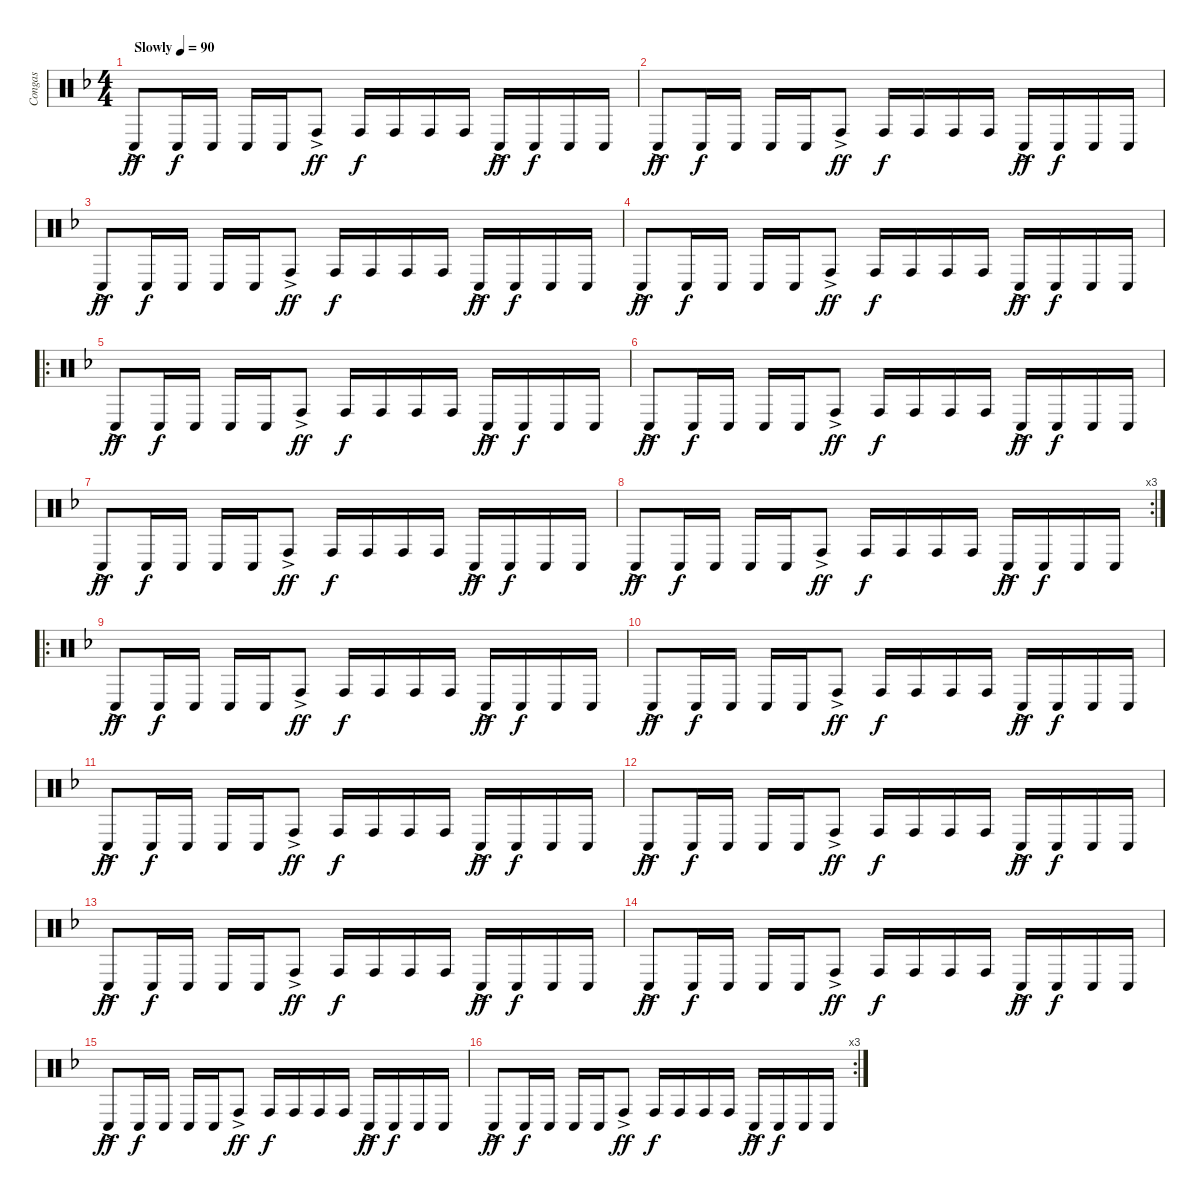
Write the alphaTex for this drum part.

\track ("Congas" "Congas") {instrument percussion}
\staff {score}
\articulation defaults
\ts (4 4)
\tempo (90 "Slowly")
\clef neutral
\ks dminor "Conga low (hit)"{ac}.8{dy ff} "Conga low (hit)".16{dy f} "Conga low (hit)".16 "Conga low (hit)".16 "Conga low (hit)".16 "Conga high (hit)"{ac}.8{dy ff} "Conga high (hit)".16{dy f} "Conga high (hit)".16 "Conga high (hit)".16 "Conga high (hit)".16 "Conga low (hit)"{ac}.16{dy ff} "Conga low (hit)".16{dy f} "Conga low (hit)".16 "Conga low (hit)".16
|
"Conga low (hit)"{ac}.8{dy ff} "Conga low (hit)".16{dy f} "Conga low (hit)".16 "Conga low (hit)".16 "Conga low (hit)".16 "Conga high (hit)"{ac}.8{dy ff} "Conga high (hit)".16{dy f} "Conga high (hit)".16 "Conga high (hit)".16 "Conga high (hit)".16 "Conga low (hit)"{ac}.16{dy ff} "Conga low (hit)".16{dy f} "Conga low (hit)".16 "Conga low (hit)".16 |
"Conga low (hit)"{ac}.8{dy ff} "Conga low (hit)".16{dy f} "Conga low (hit)".16 "Conga low (hit)".16 "Conga low (hit)".16 "Conga high (hit)"{ac}.8{dy ff} "Conga high (hit)".16{dy f} "Conga high (hit)".16 "Conga high (hit)".16 "Conga high (hit)".16 "Conga low (hit)"{ac}.16{dy ff} "Conga low (hit)".16{dy f} "Conga low (hit)".16 "Conga low (hit)".16 |
"Conga low (hit)"{ac}.8{dy ff} "Conga low (hit)".16{dy f} "Conga low (hit)".16 "Conga low (hit)".16 "Conga low (hit)".16 "Conga high (hit)"{ac}.8{dy ff} "Conga high (hit)".16{dy f} "Conga high (hit)".16 "Conga high (hit)".16 "Conga high (hit)".16 "Conga low (hit)"{ac}.16{dy ff} "Conga low (hit)".16{dy f} "Conga low (hit)".16 "Conga low (hit)".16 |
\ro "Conga low (hit)"{ac}.8{dy ff} "Conga low (hit)".16{dy f} "Conga low (hit)".16 "Conga low (hit)".16 "Conga low (hit)".16 "Conga high (hit)"{ac}.8{dy ff} "Conga high (hit)".16{dy f} "Conga high (hit)".16 "Conga high (hit)".16 "Conga high (hit)".16 "Conga low (hit)"{ac}.16{dy ff} "Conga low (hit)".16{dy f} "Conga low (hit)".16 "Conga low (hit)".16
|
"Conga low (hit)"{ac}.8{dy ff} "Conga low (hit)".16{dy f} "Conga low (hit)".16 "Conga low (hit)".16 "Conga low (hit)".16 "Conga high (hit)"{ac}.8{dy ff} "Conga high (hit)".16{dy f} "Conga high (hit)".16 "Conga high (hit)".16 "Conga high (hit)".16 "Conga low (hit)"{ac}.16{dy ff} "Conga low (hit)".16{dy f} "Conga low (hit)".16 "Conga low (hit)".16 |
"Conga low (hit)"{ac}.8{dy ff} "Conga low (hit)".16{dy f} "Conga low (hit)".16 "Conga low (hit)".16 "Conga low (hit)".16 "Conga high (hit)"{ac}.8{dy ff} "Conga high (hit)".16{dy f} "Conga high (hit)".16 "Conga high (hit)".16 "Conga high (hit)".16 "Conga low (hit)"{ac}.16{dy ff} "Conga low (hit)".16{dy f} "Conga low (hit)".16 "Conga low (hit)".16 |
\rc 3 "Conga low (hit)"{ac}.8{dy ff} "Conga low (hit)".16{dy f} "Conga low (hit)".16 "Conga low (hit)".16 "Conga low (hit)".16 "Conga high (hit)"{ac}.8{dy ff} "Conga high (hit)".16{dy f} "Conga high (hit)".16 "Conga high (hit)".16 "Conga high (hit)".16 "Conga low (hit)"{ac}.16{dy ff} "Conga low (hit)".16{dy f} "Conga low (hit)".16 "Conga low (hit)".16
|
\ro "Conga low (hit)"{ac}.8{dy ff} "Conga low (hit)".16{dy f} "Conga low (hit)".16 "Conga low (hit)".16 "Conga low (hit)".16 "Conga high (hit)"{ac}.8{dy ff} "Conga high (hit)".16{dy f} "Conga high (hit)".16 "Conga high (hit)".16 "Conga high (hit)".16 "Conga low (hit)"{ac}.16{dy ff} "Conga low (hit)".16{dy f} "Conga low (hit)".16 "Conga low (hit)".16
|
"Conga low (hit)"{ac}.8{dy ff} "Conga low (hit)".16{dy f} "Conga low (hit)".16 "Conga low (hit)".16 "Conga low (hit)".16 "Conga high (hit)"{ac}.8{dy ff} "Conga high (hit)".16{dy f} "Conga high (hit)".16 "Conga high (hit)".16 "Conga high (hit)".16 "Conga low (hit)"{ac}.16{dy ff} "Conga low (hit)".16{dy f} "Conga low (hit)".16 "Conga low (hit)".16 |
"Conga low (hit)"{ac}.8{dy ff} "Conga low (hit)".16{dy f} "Conga low (hit)".16 "Conga low (hit)".16 "Conga low (hit)".16 "Conga high (hit)"{ac}.8{dy ff} "Conga high (hit)".16{dy f} "Conga high (hit)".16 "Conga high (hit)".16 "Conga high (hit)".16 "Conga low (hit)"{ac}.16{dy ff} "Conga low (hit)".16{dy f} "Conga low (hit)".16 "Conga low (hit)".16 |
"Conga low (hit)"{ac}.8{dy ff} "Conga low (hit)".16{dy f} "Conga low (hit)".16 "Conga low (hit)".16 "Conga low (hit)".16 "Conga high (hit)"{ac}.8{dy ff} "Conga high (hit)".16{dy f} "Conga high (hit)".16 "Conga high (hit)".16 "Conga high (hit)".16 "Conga low (hit)"{ac}.16{dy ff} "Conga low (hit)".16{dy f} "Conga low (hit)".16 "Conga low (hit)".16 |
"Conga low (hit)"{ac}.8{dy ff} "Conga low (hit)".16{dy f} "Conga low (hit)".16 "Conga low (hit)".16 "Conga low (hit)".16 "Conga high (hit)"{ac}.8{dy ff} "Conga high (hit)".16{dy f} "Conga high (hit)".16 "Conga high (hit)".16 "Conga high (hit)".16 "Conga low (hit)"{ac}.16{dy ff} "Conga low (hit)".16{dy f} "Conga low (hit)".16 "Conga low (hit)".16 |
"Conga low (hit)"{ac}.8{dy ff} "Conga low (hit)".16{dy f} "Conga low (hit)".16 "Conga low (hit)".16 "Conga low (hit)".16 "Conga high (hit)"{ac}.8{dy ff} "Conga high (hit)".16{dy f} "Conga high (hit)".16 "Conga high (hit)".16 "Conga high (hit)".16 "Conga low (hit)"{ac}.16{dy ff} "Conga low (hit)".16{dy f} "Conga low (hit)".16 "Conga low (hit)".16 |
"Conga low (hit)"{ac}.8{dy ff} "Conga low (hit)".16{dy f} "Conga low (hit)".16 "Conga low (hit)".16 "Conga low (hit)".16 "Conga high (hit)"{ac}.8{dy ff} "Conga high (hit)".16{dy f} "Conga high (hit)".16 "Conga high (hit)".16 "Conga high (hit)".16 "Conga low (hit)"{ac}.16{dy ff} "Conga low (hit)".16{dy f} "Conga low (hit)".16 "Conga low (hit)".16 |
\rc 3 "Conga low (hit)"{ac}.8{dy ff} "Conga low (hit)".16{dy f} "Conga low (hit)".16 "Conga low (hit)".16 "Conga low (hit)".16 "Conga high (hit)"{ac}.8{dy ff} "Conga high (hit)".16{dy f} "Conga high (hit)".16 "Conga high (hit)".16 "Conga high (hit)".16 "Conga low (hit)"{ac}.16{dy ff} "Conga low (hit)".16{dy f} "Conga low (hit)".16 "Conga low (hit)".16
